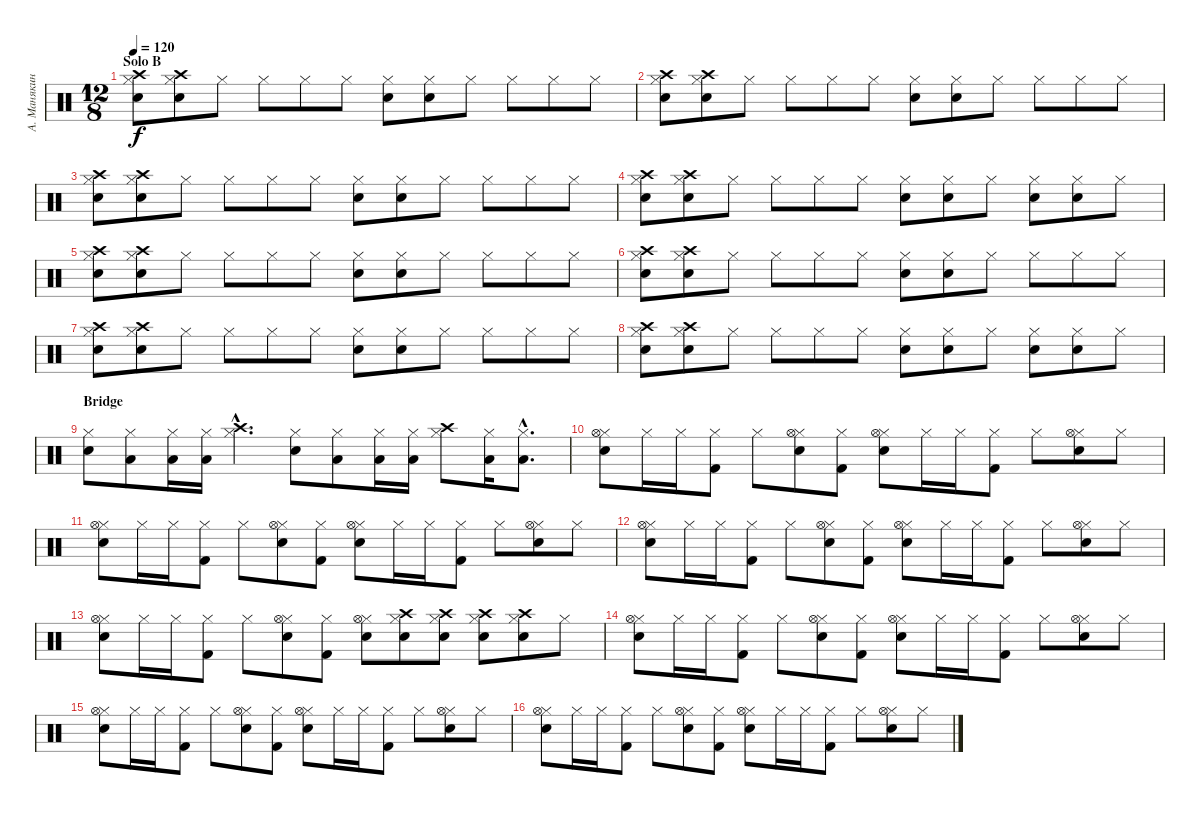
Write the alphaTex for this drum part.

\track ("А. Манякин" "А. Манякин") {instrument percussion}
\staff {score}
\articulation defaults
\ts (12 8)
\section ("" "Solo B")
\tempo 120
\clef neutral
\ks c
("Hi-Hat (closed)" "Snare (hit) 2" "Crash high (hit)").8{dy f} ("Hi-Hat (closed)" "Snare (hit) 2" "Crash high (hit)").8 "Hi-Hat (closed)".8 "Hi-Hat (closed)".8 "Hi-Hat (closed)".8 "Hi-Hat (closed)".8 ("Hi-Hat (closed)" "Snare (hit) 2").8 ("Hi-Hat (closed)" "Snare (hit) 2").8 "Hi-Hat (closed)".8 "Hi-Hat (closed)".8 "Hi-Hat (closed)".8 "Hi-Hat (closed)".8 |
("Hi-Hat (closed)" "Snare (hit) 2" "Crash high (hit)").8 ("Hi-Hat (closed)" "Snare (hit) 2" "Crash high (hit)").8 "Hi-Hat (closed)".8 "Hi-Hat (closed)".8 "Hi-Hat (closed)".8 "Hi-Hat (closed)".8 ("Hi-Hat (closed)" "Snare (hit) 2").8 ("Hi-Hat (closed)" "Snare (hit) 2").8 "Hi-Hat (closed)".8 "Hi-Hat (closed)".8 "Hi-Hat (closed)".8 "Hi-Hat (closed)".8 |
("Hi-Hat (closed)" "Snare (hit) 2" "Crash high (hit)").8 ("Hi-Hat (closed)" "Snare (hit) 2" "Crash high (hit)").8 "Hi-Hat (closed)".8 "Hi-Hat (closed)".8 "Hi-Hat (closed)".8 "Hi-Hat (closed)".8 ("Hi-Hat (closed)" "Snare (hit) 2").8 ("Hi-Hat (closed)" "Snare (hit) 2").8 "Hi-Hat (closed)".8 "Hi-Hat (closed)".8 "Hi-Hat (closed)".8 "Hi-Hat (closed)".8 |
("Hi-Hat (closed)" "Snare (hit) 2" "Crash high (hit)").8 ("Hi-Hat (closed)" "Snare (hit) 2" "Crash high (hit)").8 "Hi-Hat (closed)".8 "Hi-Hat (closed)".8 "Hi-Hat (closed)".8 "Hi-Hat (closed)".8 ("Hi-Hat (closed)" "Snare (hit) 2").8 ("Hi-Hat (closed)" "Snare (hit) 2").8 "Hi-Hat (closed)".8 ("Hi-Hat (closed)" "Snare (hit) 2").8 ("Hi-Hat (closed)" "Snare (hit) 2").8 "Hi-Hat (closed)".8 |
("Hi-Hat (closed)" "Snare (hit) 2" "Crash high (hit)").8 ("Hi-Hat (closed)" "Snare (hit) 2" "Crash high (hit)").8 "Hi-Hat (closed)".8 "Hi-Hat (closed)".8 "Hi-Hat (closed)".8 "Hi-Hat (closed)".8 ("Hi-Hat (closed)" "Snare (hit) 2").8 ("Hi-Hat (closed)" "Snare (hit) 2").8 "Hi-Hat (closed)".8 "Hi-Hat (closed)".8 "Hi-Hat (closed)".8 "Hi-Hat (closed)".8 |
("Hi-Hat (closed)" "Snare (hit) 2" "Crash high (hit)").8 ("Hi-Hat (closed)" "Snare (hit) 2" "Crash high (hit)").8 "Hi-Hat (closed)".8 "Hi-Hat (closed)".8 "Hi-Hat (closed)".8 "Hi-Hat (closed)".8 ("Hi-Hat (closed)" "Snare (hit) 2").8 ("Hi-Hat (closed)" "Snare (hit) 2").8 "Hi-Hat (closed)".8 "Hi-Hat (closed)".8 "Hi-Hat (closed)".8 "Hi-Hat (closed)".8 |
("Hi-Hat (closed)" "Snare (hit) 2" "Crash high (hit)").8 ("Hi-Hat (closed)" "Snare (hit) 2" "Crash high (hit)").8 "Hi-Hat (closed)".8 "Hi-Hat (closed)".8 "Hi-Hat (closed)".8 "Hi-Hat (closed)".8 ("Hi-Hat (closed)" "Snare (hit) 2").8 ("Hi-Hat (closed)" "Snare (hit) 2").8 "Hi-Hat (closed)".8 "Hi-Hat (closed)".8 "Hi-Hat (closed)".8 "Hi-Hat (closed)".8 |
("Hi-Hat (closed)" "Snare (hit) 2" "Crash high (hit)").8 ("Hi-Hat (closed)" "Snare (hit) 2" "Crash high (hit)").8 "Hi-Hat (closed)".8 "Hi-Hat (closed)".8 "Hi-Hat (closed)".8 "Hi-Hat (closed)".8 ("Hi-Hat (closed)" "Snare (hit) 2").8 ("Hi-Hat (closed)" "Snare (hit) 2").8 "Hi-Hat (closed)".8 ("Hi-Hat (closed)" "Snare (hit) 2").8 ("Hi-Hat (closed)" "Snare (hit) 2").8 "Hi-Hat (closed)".8 |
\section ("" "Bridge")
("Hi-Hat (closed)" "Snare (hit) 2").8 ("Hi-Hat (closed)" "Low Tom (hit)").8 ("Hi-Hat (closed)" "Low Tom (hit)").16 ("Hi-Hat (closed)" "Low Tom (hit)").16 ("Hi-Hat (closed)"{hac} "Crash high (hit)"{hac}).4{d} ("Hi-Hat (closed)" "Snare (hit) 2").8 ("Hi-Hat (closed)" "Low Tom (hit)").8 ("Hi-Hat (closed)" "Low Tom (hit)").16 ("Hi-Hat (closed)" "Low Tom (hit)").16 ("Hi-Hat (closed)" "Crash high (hit)").8 ("Hi-Hat (closed)" "Low Tom (hit)").16 ("Hi-Hat (closed)"{hac} "Low Tom (hit)"{hac}).8{d} |
("Hi-Hat (closed)" "Snare (hit) 2" "Hi-Hat (open)").8 "Hi-Hat (closed)".16 "Hi-Hat (closed)".16 ("Hi-Hat (closed)" "Kick (hit) 2").8 "Hi-Hat (closed)".8 ("Hi-Hat (closed)" "Snare (hit) 2" "Hi-Hat (open)").8 ("Hi-Hat (closed)" "Kick (hit) 2").8 ("Hi-Hat (closed)" "Snare (hit) 2" "Hi-Hat (open)").8 "Hi-Hat (closed)".16 "Hi-Hat (closed)".16 ("Hi-Hat (closed)" "Kick (hit) 2").8 "Hi-Hat (closed)".8 ("Hi-Hat (closed)" "Snare (hit) 2" "Hi-Hat (open)").8 "Hi-Hat (closed)".8 |
("Hi-Hat (closed)" "Snare (hit) 2" "Hi-Hat (open)").8 "Hi-Hat (closed)".16 "Hi-Hat (closed)".16 ("Hi-Hat (closed)" "Kick (hit) 2").8 "Hi-Hat (closed)".8 ("Hi-Hat (closed)" "Snare (hit) 2" "Hi-Hat (open)").8 ("Hi-Hat (closed)" "Kick (hit) 2").8 ("Hi-Hat (closed)" "Snare (hit) 2" "Hi-Hat (open)").8 "Hi-Hat (closed)".16 "Hi-Hat (closed)".16 ("Hi-Hat (closed)" "Kick (hit) 2").8 "Hi-Hat (closed)".8 ("Hi-Hat (closed)" "Snare (hit) 2" "Hi-Hat (open)").8 "Hi-Hat (closed)".8 |
("Hi-Hat (closed)" "Snare (hit) 2" "Hi-Hat (open)").8 "Hi-Hat (closed)".16 "Hi-Hat (closed)".16 ("Hi-Hat (closed)" "Kick (hit) 2").8 "Hi-Hat (closed)".8 ("Hi-Hat (closed)" "Snare (hit) 2" "Hi-Hat (open)").8 ("Hi-Hat (closed)" "Kick (hit) 2").8 ("Hi-Hat (closed)" "Snare (hit) 2" "Hi-Hat (open)").8 "Hi-Hat (closed)".16 "Hi-Hat (closed)".16 ("Hi-Hat (closed)" "Kick (hit) 2").8 "Hi-Hat (closed)".8 ("Hi-Hat (closed)" "Snare (hit) 2" "Hi-Hat (open)").8 "Hi-Hat (closed)".8 |
("Hi-Hat (closed)" "Snare (hit) 2" "Hi-Hat (open)").8 "Hi-Hat (closed)".16 "Hi-Hat (closed)".16 ("Hi-Hat (closed)" "Kick (hit) 2").8 "Hi-Hat (closed)".8 ("Hi-Hat (closed)" "Snare (hit) 2" "Hi-Hat (open)").8 ("Hi-Hat (closed)" "Kick (hit) 2").8 ("Hi-Hat (closed)" "Snare (hit) 2" "Hi-Hat (open)").8 ("Hi-Hat (closed)" "Snare (hit) 2" "Crash high (hit)").8 ("Hi-Hat (closed)" "Snare (hit) 2" "Crash high (hit)").8 ("Hi-Hat (closed)" "Snare (hit) 2" "Crash high (hit)").8 ("Hi-Hat (closed)" "Snare (hit) 2" "Crash high (hit)").8 "Hi-Hat (closed)".8 |
("Hi-Hat (closed)" "Snare (hit) 2" "Hi-Hat (open)").8 "Hi-Hat (closed)".16 "Hi-Hat (closed)".16 ("Hi-Hat (closed)" "Kick (hit) 2").8 "Hi-Hat (closed)".8 ("Hi-Hat (closed)" "Snare (hit) 2" "Hi-Hat (open)").8 ("Hi-Hat (closed)" "Kick (hit) 2").8 ("Hi-Hat (closed)" "Snare (hit) 2" "Hi-Hat (open)").8 "Hi-Hat (closed)".16 "Hi-Hat (closed)".16 ("Hi-Hat (closed)" "Kick (hit) 2").8 "Hi-Hat (closed)".8 ("Hi-Hat (closed)" "Snare (hit) 2" "Hi-Hat (open)").8 "Hi-Hat (closed)".8 |
("Hi-Hat (closed)" "Snare (hit) 2" "Hi-Hat (open)").8 "Hi-Hat (closed)".16 "Hi-Hat (closed)".16 ("Hi-Hat (closed)" "Kick (hit) 2").8 "Hi-Hat (closed)".8 ("Hi-Hat (closed)" "Snare (hit) 2" "Hi-Hat (open)").8 ("Hi-Hat (closed)" "Kick (hit) 2").8 ("Hi-Hat (closed)" "Snare (hit) 2" "Hi-Hat (open)").8 "Hi-Hat (closed)".16 "Hi-Hat (closed)".16 ("Hi-Hat (closed)" "Kick (hit) 2").8 "Hi-Hat (closed)".8 ("Hi-Hat (closed)" "Snare (hit) 2" "Hi-Hat (open)").8 "Hi-Hat (closed)".8 |
("Hi-Hat (closed)" "Snare (hit) 2" "Hi-Hat (open)").8 "Hi-Hat (closed)".16 "Hi-Hat (closed)".16 ("Hi-Hat (closed)" "Kick (hit) 2").8 "Hi-Hat (closed)".8 ("Hi-Hat (closed)" "Snare (hit) 2" "Hi-Hat (open)").8 ("Hi-Hat (closed)" "Kick (hit) 2").8 ("Hi-Hat (closed)" "Snare (hit) 2" "Hi-Hat (open)").8 "Hi-Hat (closed)".16 "Hi-Hat (closed)".16 ("Hi-Hat (closed)" "Kick (hit) 2").8 "Hi-Hat (closed)".8 ("Hi-Hat (closed)" "Snare (hit) 2" "Hi-Hat (open)").8 "Hi-Hat (closed)".8
